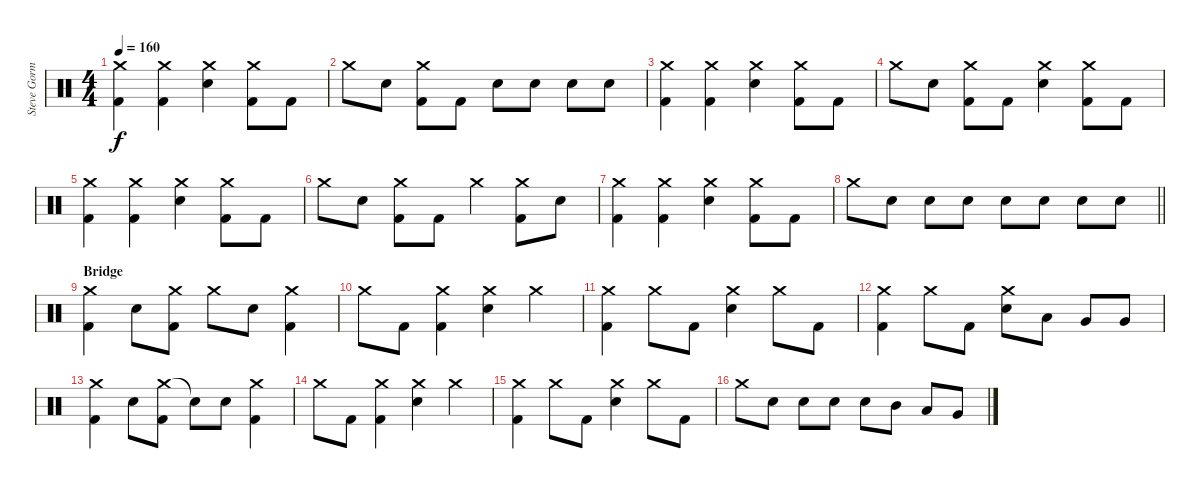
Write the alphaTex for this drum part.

\track ("Steve Gorman " "Steve Gorm") {instrument percussion}
\staff {score}
\articulation defaults
\ts (4 4)
\tempo 160
\clef neutral
\ks c
("Crash medium (hit)" "Kick (hit) 2").4{dy f} ("Crash medium (hit)" "Kick (hit) 2").4 ("Crash medium (hit)" "Snare (hit) 2").4 ("Crash medium (hit)" "Kick (hit) 2").8 "Kick (hit) 2".8 |
"Crash medium (hit)".8 "Snare (hit) 2".8 ("Crash medium (hit)" "Kick (hit) 2").8 "Kick (hit) 2".8 "Snare (hit) 2".8 "Snare (hit) 2".8 "Snare (hit) 2".8 "Snare (hit) 2".8 |
("Crash medium (hit)" "Kick (hit) 2").4 ("Crash medium (hit)" "Kick (hit) 2").4 ("Crash medium (hit)" "Snare (hit) 2").4 ("Crash medium (hit)" "Kick (hit) 2").8 "Kick (hit) 2".8 |
"Crash medium (hit)".8 "Snare (hit) 2".8 ("Crash medium (hit)" "Kick (hit) 2").8 "Kick (hit) 2".8 ("Crash medium (hit)" "Snare (hit) 2").4 ("Crash medium (hit)" "Kick (hit) 2").8 "Kick (hit) 2".8 |
("Crash medium (hit)" "Kick (hit) 2").4 ("Crash medium (hit)" "Kick (hit) 2").4 ("Crash medium (hit)" "Snare (hit) 2").4 ("Crash medium (hit)" "Kick (hit) 2").8 "Kick (hit) 2".8 |
"Crash medium (hit)".8 "Snare (hit) 2".8 ("Crash medium (hit)" "Kick (hit) 2").8 "Kick (hit) 2".8 "Crash medium (hit)".4 ("Crash medium (hit)" "Kick (hit) 2").8 "Snare (hit) 2".8 |
("Crash medium (hit)" "Kick (hit) 2").4 ("Crash medium (hit)" "Kick (hit) 2").4 ("Crash medium (hit)" "Snare (hit) 2").4 ("Crash medium (hit)" "Kick (hit) 2").8 "Kick (hit) 2".8 |
\barLineRight lightlight "Crash medium (hit)".8 "Snare (hit) 2".8 "Snare (hit) 2".8 "Snare (hit) 2".8 "Snare (hit) 2".8 "Snare (hit) 2".8 "Snare (hit) 2".8 "Snare (hit) 2".8
|
\section ("" "Bridge")
("Crash medium (hit)" "Kick (hit) 2").4 "Snare (hit) 2".8 ("Crash medium (hit)" "Kick (hit) 2").8 "Crash medium (hit)".8 "Snare (hit) 2".8 ("Crash medium (hit)" "Kick (hit) 2").4 |
"Crash medium (hit)".8 "Kick (hit) 2".8 ("Crash medium (hit)" "Kick (hit) 2").4 ("Crash medium (hit)" "Snare (hit) 2").4 "Crash medium (hit)".4 |
("Crash medium (hit)" "Kick (hit) 2").4 "Crash medium (hit)".8 "Kick (hit) 2".8 ("Crash medium (hit)" "Snare (hit) 2").4 "Crash medium (hit)".8 "Kick (hit) 2".8 |
("Crash medium (hit)" "Kick (hit) 2").4 "Crash medium (hit)".8 "Kick (hit) 2".8 ("Crash medium (hit)" "Snare (hit) 2").8 "Low Tom (hit)".8 "Very Low Tom (hit)".8 "Very Low Tom (hit)".8 |
("Crash medium (hit)" "Kick (hit) 2").4 "Snare (hit) 2".8 ("Crash medium (hit)" "Kick (hit) 2").8 "Snare (hit)"{t}.8 "Snare (hit) 2".8 ("Crash medium (hit)" "Kick (hit) 2").4 |
"Crash medium (hit)".8 "Kick (hit) 2".8 ("Crash medium (hit)" "Kick (hit) 2").4 ("Crash medium (hit)" "Snare (hit) 2").4 "Crash medium (hit)".4 |
("Crash medium (hit)" "Kick (hit) 2").4 "Crash medium (hit)".8 "Kick (hit) 2".8 ("Crash medium (hit)" "Snare (hit) 2").4 "Crash medium (hit)".8 "Kick (hit) 2".8 |
"Crash medium (hit)".8 "Snare (hit) 2".8 "Snare (hit) 2".8 "Snare (hit) 2".8 "Snare (hit) 2".8 "Mid Tom (hit)".8 "Low Tom (hit)".8 "Very Low Tom (hit)".8
